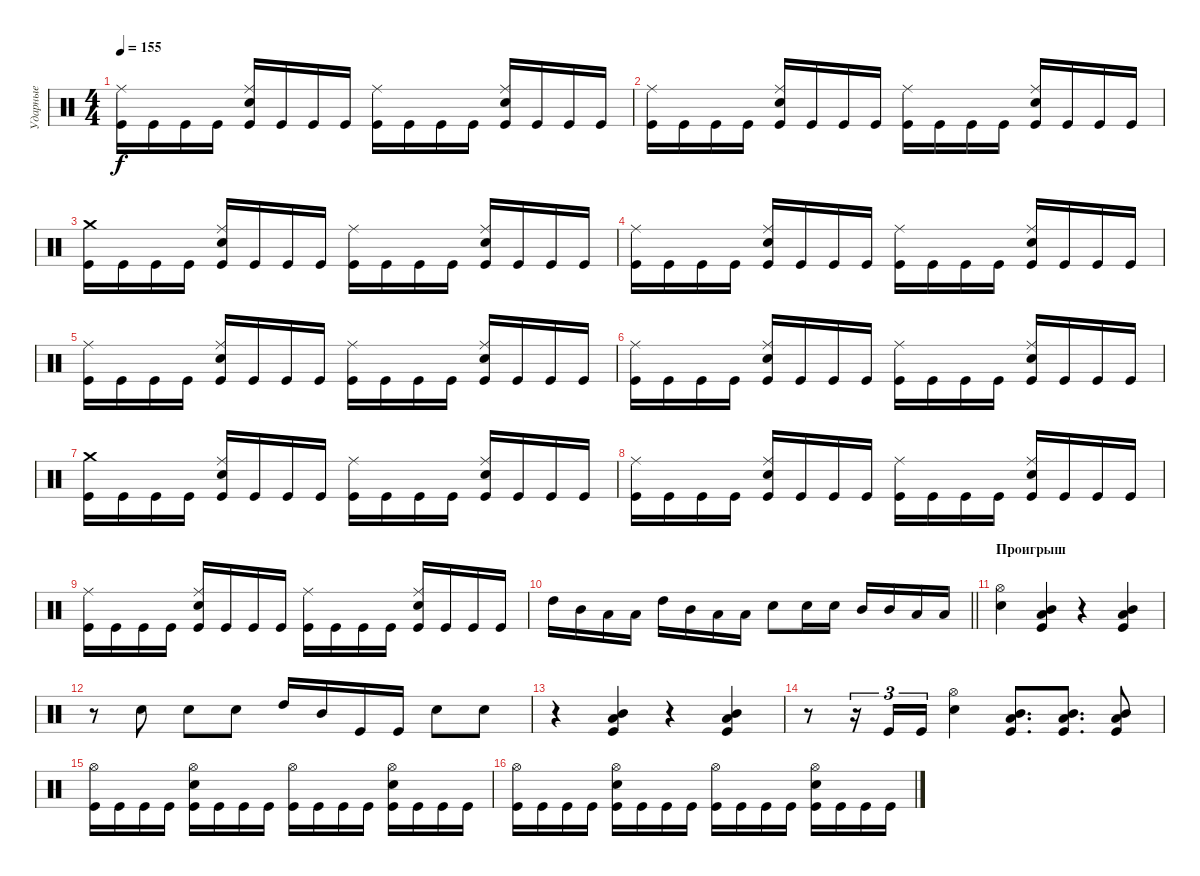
\track ("Ударные" "Ударные") {instrument percussion}
\staff {score}
\articulation defaults
\ts (4 4)
\tempo 155
\clef neutral
\ks c
("Kick (hit)" "Ride (middle)").16{dy f} "Kick (hit)".16 "Kick (hit)".16 "Kick (hit)".16 ("Kick (hit)" "Snare (hit) 2" "Ride (middle)").16 "Kick (hit)".16 "Kick (hit)".16 "Kick (hit)".16 ("Kick (hit)" "Ride (middle)").16 "Kick (hit)".16 "Kick (hit)".16 "Kick (hit)".16 ("Kick (hit)" "Snare (hit) 2" "Ride (middle)").16 "Kick (hit)".16 "Kick (hit)".16 "Kick (hit)".16 |
("Kick (hit)" "Ride (middle)").16 "Kick (hit)".16 "Kick (hit)".16 "Kick (hit)".16 ("Kick (hit)" "Snare (hit) 2" "Ride (middle)").16 "Kick (hit)".16 "Kick (hit)".16 "Kick (hit)".16 ("Kick (hit)" "Ride (middle)").16 "Kick (hit)".16 "Kick (hit)".16 "Kick (hit)".16 ("Kick (hit)" "Snare (hit) 2" "Ride (middle)").16 "Kick (hit)".16 "Kick (hit)".16 "Kick (hit)".16 |
("Kick (hit)" "Crash medium (hit)").16 "Kick (hit)".16 "Kick (hit)".16 "Kick (hit)".16 ("Kick (hit)" "Snare (hit) 2" "Ride (middle)").16 "Kick (hit)".16 "Kick (hit)".16 "Kick (hit)".16 ("Kick (hit)" "Ride (middle)").16 "Kick (hit)".16 "Kick (hit)".16 "Kick (hit)".16 ("Kick (hit)" "Snare (hit) 2" "Ride (middle)").16 "Kick (hit)".16 "Kick (hit)".16 "Kick (hit)".16 |
("Kick (hit)" "Ride (middle)").16 "Kick (hit)".16 "Kick (hit)".16 "Kick (hit)".16 ("Kick (hit)" "Snare (hit) 2" "Ride (middle)").16 "Kick (hit)".16 "Kick (hit)".16 "Kick (hit)".16 ("Kick (hit)" "Ride (middle)").16 "Kick (hit)".16 "Kick (hit)".16 "Kick (hit)".16 ("Kick (hit)" "Snare (hit) 2" "Ride (middle)").16 "Kick (hit)".16 "Kick (hit)".16 "Kick (hit)".16 |
("Kick (hit)" "Ride (middle)").16 "Kick (hit)".16 "Kick (hit)".16 "Kick (hit)".16 ("Kick (hit)" "Snare (hit) 2" "Ride (middle)").16 "Kick (hit)".16 "Kick (hit)".16 "Kick (hit)".16 ("Kick (hit)" "Ride (middle)").16 "Kick (hit)".16 "Kick (hit)".16 "Kick (hit)".16 ("Kick (hit)" "Snare (hit) 2" "Ride (middle)").16 "Kick (hit)".16 "Kick (hit)".16 "Kick (hit)".16 |
("Kick (hit)" "Ride (middle)").16 "Kick (hit)".16 "Kick (hit)".16 "Kick (hit)".16 ("Kick (hit)" "Snare (hit) 2" "Ride (middle)").16 "Kick (hit)".16 "Kick (hit)".16 "Kick (hit)".16 ("Kick (hit)" "Ride (middle)").16 "Kick (hit)".16 "Kick (hit)".16 "Kick (hit)".16 ("Kick (hit)" "Snare (hit) 2" "Ride (middle)").16 "Kick (hit)".16 "Kick (hit)".16 "Kick (hit)".16 |
("Kick (hit)" "Crash medium (hit)").16 "Kick (hit)".16 "Kick (hit)".16 "Kick (hit)".16 ("Kick (hit)" "Snare (hit) 2" "Ride (middle)").16 "Kick (hit)".16 "Kick (hit)".16 "Kick (hit)".16 ("Kick (hit)" "Ride (middle)").16 "Kick (hit)".16 "Kick (hit)".16 "Kick (hit)".16 ("Kick (hit)" "Snare (hit) 2" "Ride (middle)").16 "Kick (hit)".16 "Kick (hit)".16 "Kick (hit)".16 |
("Kick (hit)" "Ride (middle)").16 "Kick (hit)".16 "Kick (hit)".16 "Kick (hit)".16 ("Kick (hit)" "Snare (hit) 2" "Ride (middle)").16 "Kick (hit)".16 "Kick (hit)".16 "Kick (hit)".16 ("Kick (hit)" "Ride (middle)").16 "Kick (hit)".16 "Kick (hit)".16 "Kick (hit)".16 ("Kick (hit)" "Snare (hit) 2" "Ride (middle)").16 "Kick (hit)".16 "Kick (hit)".16 "Kick (hit)".16 |
("Kick (hit)" "Ride (middle)").16 "Kick (hit)".16 "Kick (hit)".16 "Kick (hit)".16 ("Kick (hit)" "Snare (hit) 2" "Ride (middle)").16 "Kick (hit)".16 "Kick (hit)".16 "Kick (hit)".16 ("Kick (hit)" "Ride (middle)").16 "Kick (hit)".16 "Kick (hit)".16 "Kick (hit)".16 ("Kick (hit)" "Snare (hit) 2" "Ride (middle)").16 "Kick (hit)".16 "Kick (hit)".16 "Kick (hit)".16 |
\barLineRight lightlight "High Tom (hit)".16 "Mid Tom (hit)".16 "Low Tom (hit)".16 "Low Tom (hit)".16 "High Tom (hit)".16 "Mid Tom (hit)".16 "Low Tom (hit)".16 "Low Tom (hit)".16 "Snare (hit) 2".8 "Snare (hit) 2".16 "Snare (hit) 2".16 "Mid Tom (hit)".16 "Mid Tom (hit)".16 "Low Tom (hit)".16 "Low Tom (hit)".16
|
\section ("" "Проигрыш")
("Snare (hit) 2" "Hi-Hat (open)").4 ("Kick (hit)" "Low Tom (hit)" "Mid Tom (hit)").4 r.4 ("Kick (hit)" "Low Tom (hit)" "Mid Tom (hit)").4 |
r.8 "Snare (hit) 2".8 "Snare (hit) 2".8 "Snare (hit) 2".8 "High Tom (hit)".16 "Mid Tom (hit)".16 "Kick (hit)".16 "Kick (hit)".16 "Snare (hit) 2".8 "Snare (hit) 2".8 |
r.4 ("Kick (hit)" "Low Tom (hit)" "Mid Tom (hit)").4 r.4 ("Kick (hit)" "Low Tom (hit)" "Mid Tom (hit)").4 |
r.8 r.16{tu (3 2)} "Kick (hit)".16{tu (3 2)} "Kick (hit)".16{tu (3 2)} ("Snare (hit) 2" "Hi-Hat (open)").4 ("Kick (hit)" "Mid Tom (hit)" "Low Tom (hit)").8{d} ("Kick (hit)" "Mid Tom (hit)" "Low Tom (hit)").8{d} ("Kick (hit)" "Mid Tom (hit)" "Low Tom (hit)").8 |
("Kick (hit)" "Hi-Hat (open)").16 "Kick (hit)".16 "Kick (hit)".16 "Kick (hit)".16 ("Kick (hit)" "Snare (hit) 2" "Hi-Hat (open)").16 "Kick (hit)".16 "Kick (hit)".16 "Kick (hit)".16 ("Kick (hit)" "Hi-Hat (open)").16 "Kick (hit)".16 "Kick (hit)".16 "Kick (hit)".16 ("Kick (hit)" "Snare (hit) 2" "Hi-Hat (open)").16 "Kick (hit)".16 "Kick (hit)".16 "Kick (hit)".16 |
("Kick (hit)" "Hi-Hat (open)").16 "Kick (hit)".16 "Kick (hit)".16 "Kick (hit)".16 ("Kick (hit)" "Snare (hit) 2" "Hi-Hat (open)").16 "Kick (hit)".16 "Kick (hit)".16 "Kick (hit)".16 ("Kick (hit)" "Hi-Hat (open)").16 "Kick (hit)".16 "Kick (hit)".16 "Kick (hit)".16 ("Kick (hit)" "Snare (hit) 2" "Hi-Hat (open)").16 "Kick (hit)".16 "Kick (hit)".16 "Kick (hit)".16
